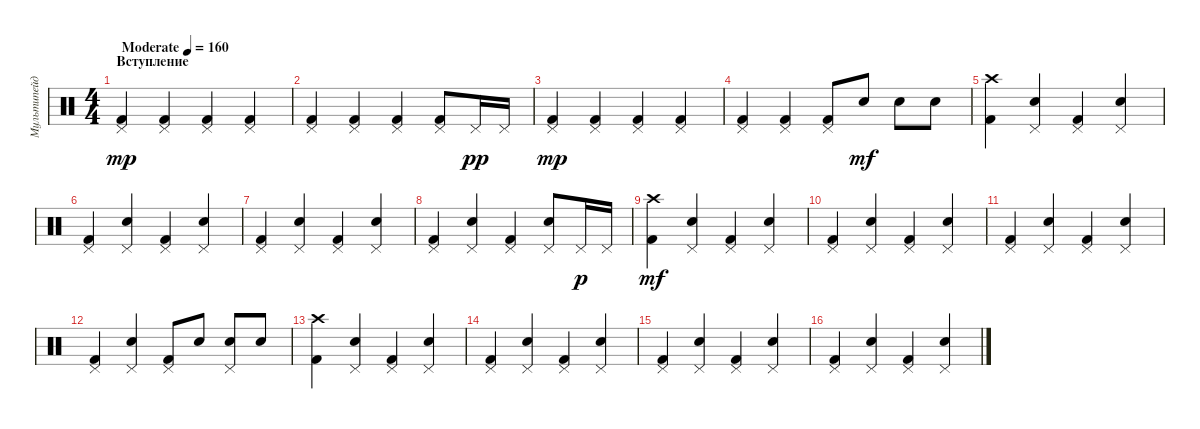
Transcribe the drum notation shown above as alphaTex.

\track ("Мультипейджер" "Мультипейд") {instrument percussion}
\staff {score}
\articulation defaults
\ts (4 4)
\section ("" "Вступление")
\tempo (160 "Moderate")
\clef neutral
\ks c
("Pedal Hi-Hat (hit)" "Kick (hit) 2").4{dy mp} ("Pedal Hi-Hat (hit)" "Kick (hit) 2").4 ("Pedal Hi-Hat (hit)" "Kick (hit) 2").4 ("Pedal Hi-Hat (hit)" "Kick (hit) 2").4 |
("Pedal Hi-Hat (hit)" "Kick (hit) 2").4 ("Pedal Hi-Hat (hit)" "Kick (hit) 2").4 ("Pedal Hi-Hat (hit)" "Kick (hit) 2").4 ("Pedal Hi-Hat (hit)" "Kick (hit) 2").8 "Pedal Hi-Hat (hit)".16{dy pp} "Pedal Hi-Hat (hit)".16 |
("Pedal Hi-Hat (hit)" "Kick (hit) 2").4{dy mp} ("Pedal Hi-Hat (hit)" "Kick (hit) 2").4 ("Pedal Hi-Hat (hit)" "Kick (hit) 2").4 ("Pedal Hi-Hat (hit)" "Kick (hit) 2").4 |
("Pedal Hi-Hat (hit)" "Kick (hit) 2").4 ("Pedal Hi-Hat (hit)" "Kick (hit) 2").4 ("Pedal Hi-Hat (hit)" "Kick (hit) 2").8 "Electric Snare (hit)".8{dy mf} "Electric Snare (hit)".8 "Electric Snare (hit)".8 |
("Crash high (hit)" "Kick (hit) 2").4 ("Pedal Hi-Hat (hit)" "Snare (hit) 2").4 ("Pedal Hi-Hat (hit)" "Kick (hit) 2").4 ("Pedal Hi-Hat (hit)" "Snare (hit) 2").4 |
("Pedal Hi-Hat (hit)" "Kick (hit) 2").4 ("Pedal Hi-Hat (hit)" "Snare (hit) 2").4 ("Pedal Hi-Hat (hit)" "Kick (hit) 2").4 ("Pedal Hi-Hat (hit)" "Snare (hit) 2").4 |
("Pedal Hi-Hat (hit)" "Kick (hit) 2").4 ("Pedal Hi-Hat (hit)" "Snare (hit) 2").4 ("Pedal Hi-Hat (hit)" "Kick (hit) 2").4 ("Pedal Hi-Hat (hit)" "Snare (hit) 2").4 |
("Pedal Hi-Hat (hit)" "Kick (hit) 2").4 ("Pedal Hi-Hat (hit)" "Snare (hit) 2").4 ("Pedal Hi-Hat (hit)" "Kick (hit) 2").4 ("Pedal Hi-Hat (hit)" "Snare (hit) 2").8 "Pedal Hi-Hat (hit)".16{dy p} "Pedal Hi-Hat (hit)".16 |
("Crash high (hit)" "Kick (hit) 2").4{dy mf} ("Pedal Hi-Hat (hit)" "Snare (hit) 2").4 ("Pedal Hi-Hat (hit)" "Kick (hit) 2").4 ("Pedal Hi-Hat (hit)" "Snare (hit) 2").4 |
("Pedal Hi-Hat (hit)" "Kick (hit) 2").4 ("Pedal Hi-Hat (hit)" "Snare (hit) 2").4 ("Pedal Hi-Hat (hit)" "Kick (hit) 2").4 ("Pedal Hi-Hat (hit)" "Snare (hit) 2").4 |
("Pedal Hi-Hat (hit)" "Kick (hit) 2").4 ("Pedal Hi-Hat (hit)" "Snare (hit) 2").4 ("Pedal Hi-Hat (hit)" "Kick (hit) 2").4 ("Pedal Hi-Hat (hit)" "Snare (hit) 2").4 |
("Pedal Hi-Hat (hit)" "Kick (hit) 2").4 ("Pedal Hi-Hat (hit)" "Snare (hit) 2").4 ("Pedal Hi-Hat (hit)" "Kick (hit) 2").8 "Electric Snare (hit)".8 ("Pedal Hi-Hat (hit)" "Electric Snare (hit)").8 "Electric Snare (hit)".8 |
("Crash high (hit)" "Kick (hit) 2").4 ("Pedal Hi-Hat (hit)" "Snare (hit) 2").4 ("Pedal Hi-Hat (hit)" "Kick (hit) 2").4 ("Pedal Hi-Hat (hit)" "Snare (hit) 2").4 |
("Pedal Hi-Hat (hit)" "Kick (hit) 2").4 ("Pedal Hi-Hat (hit)" "Snare (hit) 2").4 ("Pedal Hi-Hat (hit)" "Kick (hit) 2").4 ("Pedal Hi-Hat (hit)" "Snare (hit) 2").4 |
("Pedal Hi-Hat (hit)" "Kick (hit) 2").4 ("Pedal Hi-Hat (hit)" "Snare (hit) 2").4 ("Pedal Hi-Hat (hit)" "Kick (hit) 2").4 ("Pedal Hi-Hat (hit)" "Snare (hit) 2").4 |
("Pedal Hi-Hat (hit)" "Kick (hit) 2").4 ("Pedal Hi-Hat (hit)" "Snare (hit) 2").4 ("Pedal Hi-Hat (hit)" "Kick (hit) 2").4 ("Pedal Hi-Hat (hit)" "Snare (hit) 2").4
